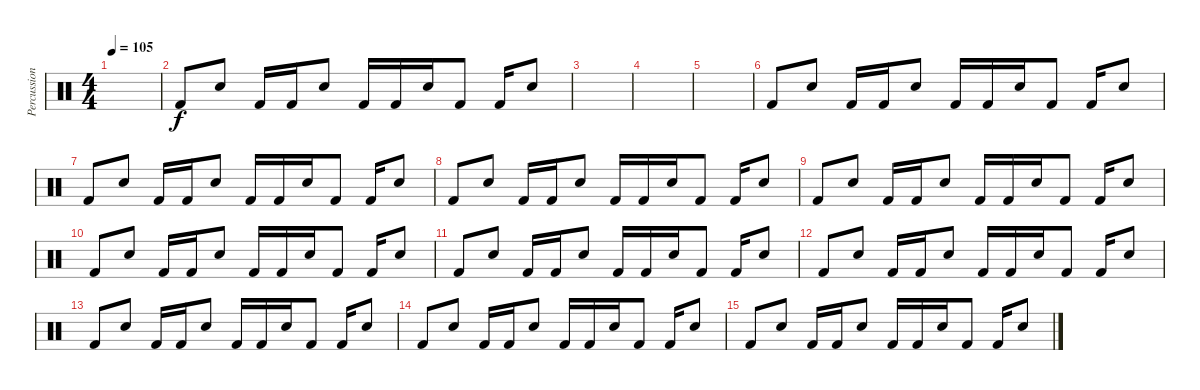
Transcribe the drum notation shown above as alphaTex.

\track ("Percussions" "Percussion") {instrument percussion}
\staff {score}
\articulation defaults
\ts (4 4)
\tempo 105
\clef neutral
\ks c
|
"Kick (hit) 2".8 "Snare (hit) 2".8 "Kick (hit) 2".16 "Kick (hit) 2".16 "Snare (hit) 2".8 "Kick (hit) 2".16 "Kick (hit) 2".16 "Snare (hit) 2".16 "Kick (hit) 2".8 "Kick (hit) 2".16 "Snare (hit) 2".8 |
|
|
|
"Kick (hit) 2".8 "Snare (hit) 2".8 "Kick (hit) 2".16 "Kick (hit) 2".16 "Snare (hit) 2".8 "Kick (hit) 2".16 "Kick (hit) 2".16 "Snare (hit) 2".16 "Kick (hit) 2".8 "Kick (hit) 2".16 "Snare (hit) 2".8 |
"Kick (hit) 2".8 "Snare (hit) 2".8 "Kick (hit) 2".16 "Kick (hit) 2".16 "Snare (hit) 2".8 "Kick (hit) 2".16 "Kick (hit) 2".16 "Snare (hit) 2".16 "Kick (hit) 2".8 "Kick (hit) 2".16 "Snare (hit) 2".8 |
"Kick (hit) 2".8 "Snare (hit) 2".8 "Kick (hit) 2".16 "Kick (hit) 2".16 "Snare (hit) 2".8 "Kick (hit) 2".16 "Kick (hit) 2".16 "Snare (hit) 2".16 "Kick (hit) 2".8 "Kick (hit) 2".16 "Snare (hit) 2".8 |
"Kick (hit) 2".8 "Snare (hit) 2".8 "Kick (hit) 2".16 "Kick (hit) 2".16 "Snare (hit) 2".8 "Kick (hit) 2".16 "Kick (hit) 2".16 "Snare (hit) 2".16 "Kick (hit) 2".8 "Kick (hit) 2".16 "Snare (hit) 2".8 |
"Kick (hit) 2".8 "Snare (hit) 2".8 "Kick (hit) 2".16 "Kick (hit) 2".16 "Snare (hit) 2".8 "Kick (hit) 2".16 "Kick (hit) 2".16 "Snare (hit) 2".16 "Kick (hit) 2".8 "Kick (hit) 2".16 "Snare (hit) 2".8 |
"Kick (hit) 2".8 "Snare (hit) 2".8 "Kick (hit) 2".16 "Kick (hit) 2".16 "Snare (hit) 2".8 "Kick (hit) 2".16 "Kick (hit) 2".16 "Snare (hit) 2".16 "Kick (hit) 2".8 "Kick (hit) 2".16 "Snare (hit) 2".8 |
"Kick (hit) 2".8 "Snare (hit) 2".8 "Kick (hit) 2".16 "Kick (hit) 2".16 "Snare (hit) 2".8 "Kick (hit) 2".16 "Kick (hit) 2".16 "Snare (hit) 2".16 "Kick (hit) 2".8 "Kick (hit) 2".16 "Snare (hit) 2".8 |
"Kick (hit) 2".8 "Snare (hit) 2".8 "Kick (hit) 2".16 "Kick (hit) 2".16 "Snare (hit) 2".8 "Kick (hit) 2".16 "Kick (hit) 2".16 "Snare (hit) 2".16 "Kick (hit) 2".8 "Kick (hit) 2".16 "Snare (hit) 2".8 |
"Kick (hit) 2".8 "Snare (hit) 2".8 "Kick (hit) 2".16 "Kick (hit) 2".16 "Snare (hit) 2".8 "Kick (hit) 2".16 "Kick (hit) 2".16 "Snare (hit) 2".16 "Kick (hit) 2".8 "Kick (hit) 2".16 "Snare (hit) 2".8 |
"Kick (hit) 2".8 "Snare (hit) 2".8 "Kick (hit) 2".16 "Kick (hit) 2".16 "Snare (hit) 2".8 "Kick (hit) 2".16 "Kick (hit) 2".16 "Snare (hit) 2".16 "Kick (hit) 2".8 "Kick (hit) 2".16 "Snare (hit) 2".8
